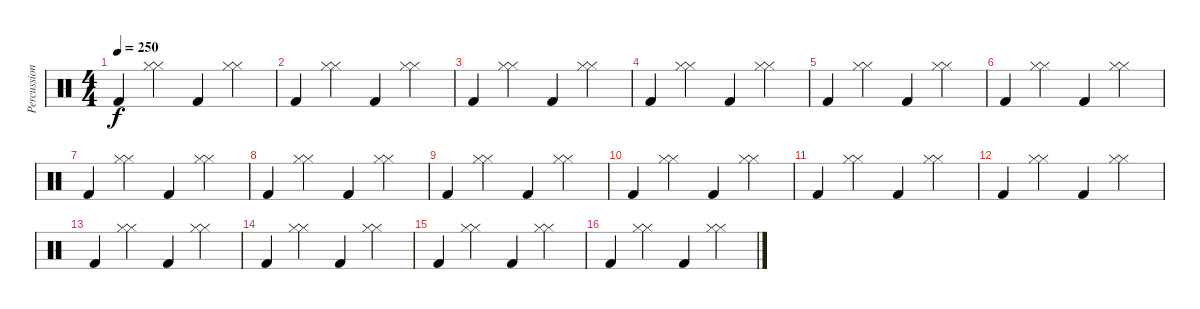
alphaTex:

\track ("Percussion" "Percussion") {instrument percussion}
\staff {score}
\articulation defaults
\ts (4 4)
\tempo 250
\clef neutral
\ks c "Kick (hit) 2".4{dy f}
("Hi-Hat (closed)" "Hi-Hat (closed)").4 "Kick (hit) 2".4 ("Hi-Hat (closed)" "Hi-Hat (closed)").4 |
"Kick (hit) 2".4 ("Hi-Hat (closed)" "Hi-Hat (closed)").4 "Kick (hit) 2".4 ("Hi-Hat (closed)" "Hi-Hat (closed)").4 |
"Kick (hit) 2".4 ("Hi-Hat (closed)" "Hi-Hat (closed)").4 "Kick (hit) 2".4 ("Hi-Hat (closed)" "Hi-Hat (closed)").4 |
"Kick (hit) 2".4 ("Hi-Hat (closed)" "Hi-Hat (closed)").4 "Kick (hit) 2".4 ("Hi-Hat (closed)" "Hi-Hat (closed)").4 |
"Kick (hit) 2".4 ("Hi-Hat (closed)" "Hi-Hat (closed)").4 "Kick (hit) 2".4 ("Hi-Hat (closed)" "Hi-Hat (closed)").4 |
"Kick (hit) 2".4 ("Hi-Hat (closed)" "Hi-Hat (closed)").4 "Kick (hit) 2".4 ("Hi-Hat (closed)" "Hi-Hat (closed)").4 |
"Kick (hit) 2".4 ("Hi-Hat (closed)" "Hi-Hat (closed)").4 "Kick (hit) 2".4 ("Hi-Hat (closed)" "Hi-Hat (closed)").4 |
"Kick (hit) 2".4 ("Hi-Hat (closed)" "Hi-Hat (closed)").4 "Kick (hit) 2".4 ("Hi-Hat (closed)" "Hi-Hat (closed)").4 |
"Kick (hit) 2".4 ("Hi-Hat (closed)" "Hi-Hat (closed)").4 "Kick (hit) 2".4 ("Hi-Hat (closed)" "Hi-Hat (closed)").4 |
"Kick (hit) 2".4 ("Hi-Hat (closed)" "Hi-Hat (closed)").4 "Kick (hit) 2".4 ("Hi-Hat (closed)" "Hi-Hat (closed)").4 |
"Kick (hit) 2".4 ("Hi-Hat (closed)" "Hi-Hat (closed)").4 "Kick (hit) 2".4 ("Hi-Hat (closed)" "Hi-Hat (closed)").4 |
"Kick (hit) 2".4 ("Hi-Hat (closed)" "Hi-Hat (closed)").4 "Kick (hit) 2".4 ("Hi-Hat (closed)" "Hi-Hat (closed)").4 |
"Kick (hit) 2".4 ("Hi-Hat (closed)" "Hi-Hat (closed)").4 "Kick (hit) 2".4 ("Hi-Hat (closed)" "Hi-Hat (closed)").4 |
"Kick (hit) 2".4 ("Hi-Hat (closed)" "Hi-Hat (closed)").4 "Kick (hit) 2".4 ("Hi-Hat (closed)" "Hi-Hat (closed)").4 |
"Kick (hit) 2".4 ("Hi-Hat (closed)" "Hi-Hat (closed)").4 "Kick (hit) 2".4 ("Hi-Hat (closed)" "Hi-Hat (closed)").4 |
"Kick (hit) 2".4 ("Hi-Hat (closed)" "Hi-Hat (closed)").4 "Kick (hit) 2".4 ("Hi-Hat (closed)" "Hi-Hat (closed)").4
